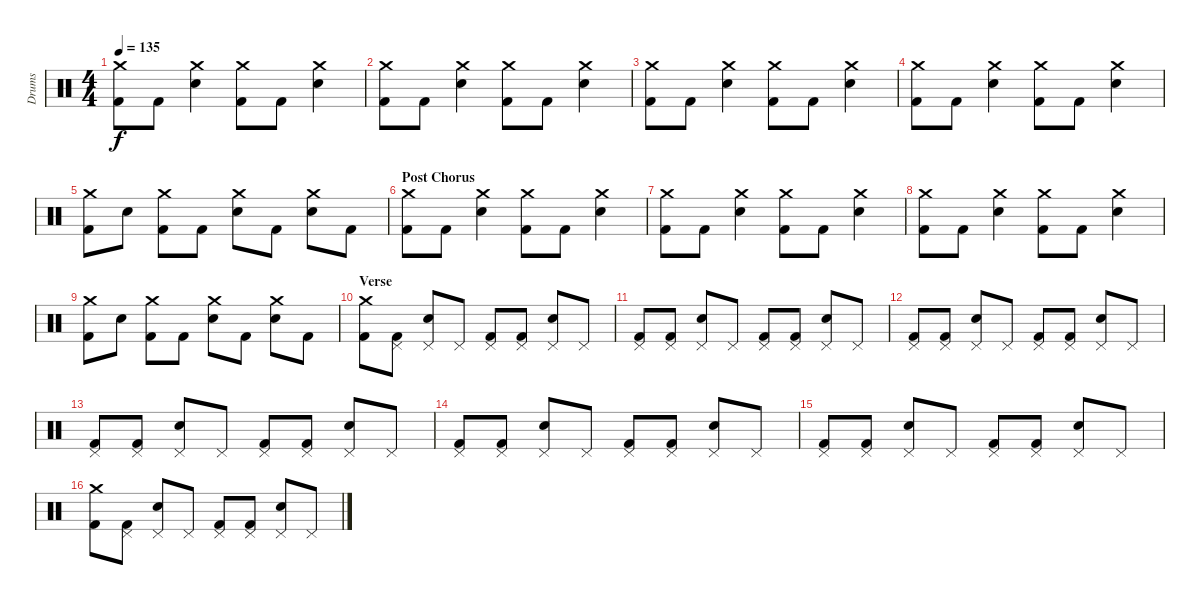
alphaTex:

\track ("Drums" "Drums") {instrument percussion}
\staff {score}
\articulation defaults
\ts (4 4)
\tempo 135
\clef neutral
\ks c
("Crash medium (hit)" "Kick (hit) 2").8{dy f} "Kick (hit) 2".8 ("Crash medium (hit)" "Electric Snare (hit)").4 ("Crash medium (hit)" "Kick (hit) 2").8 "Kick (hit) 2".8 ("Crash medium (hit)" "Electric Snare (hit)").4 |
("Crash medium (hit)" "Kick (hit) 2").8 "Kick (hit) 2".8 ("Crash medium (hit)" "Electric Snare (hit)").4 ("Crash medium (hit)" "Kick (hit) 2").8 "Kick (hit) 2".8 ("Crash medium (hit)" "Electric Snare (hit)").4 |
("Crash medium (hit)" "Kick (hit) 2").8 "Kick (hit) 2".8 ("Crash medium (hit)" "Electric Snare (hit)").4 ("Crash medium (hit)" "Kick (hit) 2").8 "Kick (hit) 2".8 ("Crash medium (hit)" "Electric Snare (hit)").4 |
("Crash medium (hit)" "Kick (hit) 2").8 "Kick (hit) 2".8 ("Crash medium (hit)" "Electric Snare (hit)").4 ("Crash medium (hit)" "Kick (hit) 2").8 "Kick (hit) 2".8 ("Crash medium (hit)" "Electric Snare (hit)").4 |
("Crash medium (hit)" "Kick (hit) 2").8 "Electric Snare (hit)".8 ("Crash medium (hit)" "Kick (hit) 2").8 "Kick (hit) 2".8 ("Crash medium (hit)" "Electric Snare (hit)").8 "Kick (hit) 2".8 ("Crash medium (hit)" "Electric Snare (hit)").8 "Kick (hit) 2".8 |
\section ("" "Post Chorus")
("Crash medium (hit)" "Kick (hit) 2").8 "Kick (hit) 2".8 ("Crash medium (hit)" "Electric Snare (hit)").4 ("Crash medium (hit)" "Kick (hit) 2").8 "Kick (hit) 2".8 ("Crash medium (hit)" "Electric Snare (hit)").4 |
("Crash medium (hit)" "Kick (hit) 2").8 "Kick (hit) 2".8 ("Crash medium (hit)" "Electric Snare (hit)").4 ("Crash medium (hit)" "Kick (hit) 2").8 "Kick (hit) 2".8 ("Crash medium (hit)" "Electric Snare (hit)").4 |
("Crash medium (hit)" "Kick (hit) 2").8 "Kick (hit) 2".8 ("Crash medium (hit)" "Electric Snare (hit)").4 ("Crash medium (hit)" "Kick (hit) 2").8 "Kick (hit) 2".8 ("Crash medium (hit)" "Electric Snare (hit)").4 |
("Crash medium (hit)" "Kick (hit) 2").8 "Electric Snare (hit)".8 ("Crash medium (hit)" "Kick (hit) 2").8 "Kick (hit) 2".8 ("Crash medium (hit)" "Electric Snare (hit)").8 "Kick (hit) 2".8 ("Crash medium (hit)" "Electric Snare (hit)").8 "Kick (hit) 2".8 |
\section ("" "Verse")
("Crash medium (hit)" "Kick (hit) 2").8 ("Pedal Hi-Hat (hit)" "Kick (hit) 2").8 ("Pedal Hi-Hat (hit)" "Electric Snare (hit)").8 "Pedal Hi-Hat (hit)".8 ("Pedal Hi-Hat (hit)" "Kick (hit) 2").8 ("Pedal Hi-Hat (hit)" "Kick (hit) 2").8 ("Pedal Hi-Hat (hit)" "Electric Snare (hit)").8 "Pedal Hi-Hat (hit)".8 |
("Pedal Hi-Hat (hit)" "Kick (hit) 2").8 ("Pedal Hi-Hat (hit)" "Kick (hit) 2").8 ("Pedal Hi-Hat (hit)" "Electric Snare (hit)").8 "Pedal Hi-Hat (hit)".8 ("Pedal Hi-Hat (hit)" "Kick (hit) 2").8 ("Pedal Hi-Hat (hit)" "Kick (hit) 2").8 ("Pedal Hi-Hat (hit)" "Electric Snare (hit)").8 "Pedal Hi-Hat (hit)".8 |
("Pedal Hi-Hat (hit)" "Kick (hit) 2").8 ("Pedal Hi-Hat (hit)" "Kick (hit) 2").8 ("Pedal Hi-Hat (hit)" "Electric Snare (hit)").8 "Pedal Hi-Hat (hit)".8 ("Pedal Hi-Hat (hit)" "Kick (hit) 2").8 ("Pedal Hi-Hat (hit)" "Kick (hit) 2").8 ("Pedal Hi-Hat (hit)" "Electric Snare (hit)").8 "Pedal Hi-Hat (hit)".8 |
("Pedal Hi-Hat (hit)" "Kick (hit) 2").8 ("Pedal Hi-Hat (hit)" "Kick (hit) 2").8 ("Pedal Hi-Hat (hit)" "Electric Snare (hit)").8 "Pedal Hi-Hat (hit)".8 ("Pedal Hi-Hat (hit)" "Kick (hit) 2").8 ("Pedal Hi-Hat (hit)" "Kick (hit) 2").8 ("Pedal Hi-Hat (hit)" "Electric Snare (hit)").8 "Pedal Hi-Hat (hit)".8 |
("Pedal Hi-Hat (hit)" "Kick (hit) 2").8 ("Pedal Hi-Hat (hit)" "Kick (hit) 2").8 ("Pedal Hi-Hat (hit)" "Electric Snare (hit)").8 "Pedal Hi-Hat (hit)".8 ("Pedal Hi-Hat (hit)" "Kick (hit) 2").8 ("Pedal Hi-Hat (hit)" "Kick (hit) 2").8 ("Pedal Hi-Hat (hit)" "Electric Snare (hit)").8 "Pedal Hi-Hat (hit)".8 |
("Pedal Hi-Hat (hit)" "Kick (hit) 2").8 ("Pedal Hi-Hat (hit)" "Kick (hit) 2").8 ("Pedal Hi-Hat (hit)" "Electric Snare (hit)").8 "Pedal Hi-Hat (hit)".8 ("Pedal Hi-Hat (hit)" "Kick (hit) 2").8 ("Pedal Hi-Hat (hit)" "Kick (hit) 2").8 ("Pedal Hi-Hat (hit)" "Electric Snare (hit)").8 "Pedal Hi-Hat (hit)".8 |
("Crash medium (hit)" "Kick (hit) 2").8 ("Pedal Hi-Hat (hit)" "Kick (hit) 2").8 ("Pedal Hi-Hat (hit)" "Electric Snare (hit)").8 "Pedal Hi-Hat (hit)".8 ("Pedal Hi-Hat (hit)" "Kick (hit) 2").8 ("Pedal Hi-Hat (hit)" "Kick (hit) 2").8 ("Pedal Hi-Hat (hit)" "Electric Snare (hit)").8 "Pedal Hi-Hat (hit)".8
